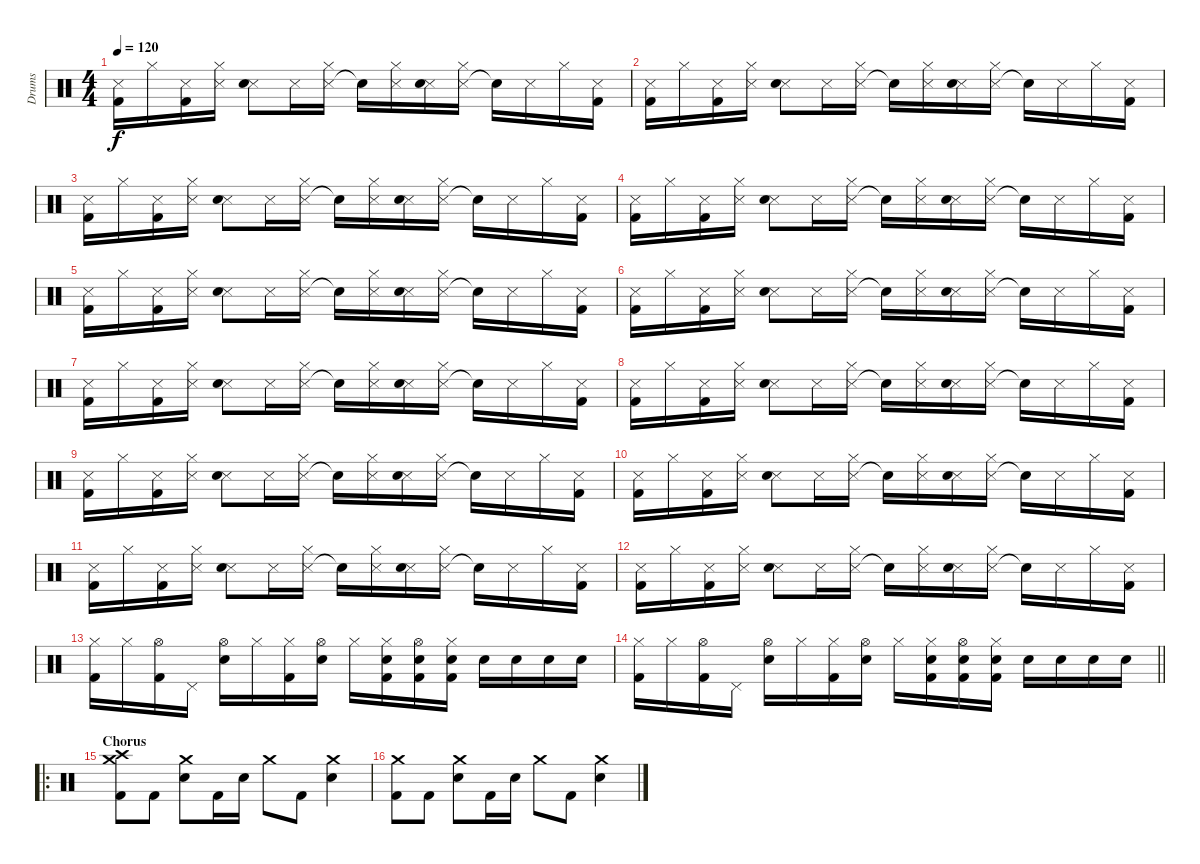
\track ("Drums" "Drums") {instrument percussion}
\staff {score}
\articulation defaults
\ts (4 4)
\tempo 120
\clef neutral
\ks c
("Snare (side stick) 3" "Kick (hit) 2").16{dy f} "Hi-Hat (closed)".16 ("Snare (side stick) 3" "Kick (hit) 2").16 ("Snare (side stick) 3" "Hi-Hat (closed)").16 ("Snare (side stick) 3" "Snare (hit) 2").8 "Snare (side stick) 3".16 ("Snare (side stick) 3" "Hi-Hat (closed)").16 "Snare (hit)"{t}.16 ("Snare (side stick) 3" "Hi-Hat (closed)").16 ("Snare (side stick) 3" "Snare (hit) 2").16 ("Snare (side stick) 3" "Hi-Hat (closed)").16 "Snare (hit)"{t}.16 "Snare (side stick) 3".16 "Hi-Hat (closed)".16 ("Snare (side stick) 3" "Kick (hit) 2").16 |
("Snare (side stick) 3" "Kick (hit) 2").16 "Hi-Hat (closed)".16 ("Snare (side stick) 3" "Kick (hit) 2").16 ("Snare (side stick) 3" "Hi-Hat (closed)").16 ("Snare (side stick) 3" "Snare (hit) 2").8 "Snare (side stick) 3".16 ("Snare (side stick) 3" "Hi-Hat (closed)").16 "Snare (hit)"{t}.16 ("Snare (side stick) 3" "Hi-Hat (closed)").16 ("Snare (side stick) 3" "Snare (hit) 2").16 ("Snare (side stick) 3" "Hi-Hat (closed)").16 "Snare (hit)"{t}.16 "Snare (side stick) 3".16 "Hi-Hat (closed)".16 ("Snare (side stick) 3" "Kick (hit) 2").16 |
("Snare (side stick) 3" "Kick (hit) 2").16 "Hi-Hat (closed)".16 ("Snare (side stick) 3" "Kick (hit) 2").16 ("Snare (side stick) 3" "Hi-Hat (closed)").16 ("Snare (side stick) 3" "Snare (hit) 2").8 "Snare (side stick) 3".16 ("Snare (side stick) 3" "Hi-Hat (closed)").16 "Snare (hit)"{t}.16 ("Snare (side stick) 3" "Hi-Hat (closed)").16 ("Snare (side stick) 3" "Snare (hit) 2").16 ("Snare (side stick) 3" "Hi-Hat (closed)").16 "Snare (hit)"{t}.16 "Snare (side stick) 3".16 "Hi-Hat (closed)".16 ("Snare (side stick) 3" "Kick (hit) 2").16 |
("Snare (side stick) 3" "Kick (hit) 2").16 "Hi-Hat (closed)".16 ("Snare (side stick) 3" "Kick (hit) 2").16 ("Snare (side stick) 3" "Hi-Hat (closed)").16 ("Snare (side stick) 3" "Snare (hit) 2").8 "Snare (side stick) 3".16 ("Snare (side stick) 3" "Hi-Hat (closed)").16 "Snare (hit)"{t}.16 ("Snare (side stick) 3" "Hi-Hat (closed)").16 ("Snare (side stick) 3" "Snare (hit) 2").16 ("Snare (side stick) 3" "Hi-Hat (closed)").16 "Snare (hit)"{t}.16 "Snare (side stick) 3".16 "Hi-Hat (closed)".16 ("Snare (side stick) 3" "Kick (hit) 2").16 |
("Snare (side stick) 3" "Kick (hit) 2").16 "Hi-Hat (closed)".16 ("Snare (side stick) 3" "Kick (hit) 2").16 ("Snare (side stick) 3" "Hi-Hat (closed)").16 ("Snare (side stick) 3" "Snare (hit) 2").8 "Snare (side stick) 3".16 ("Snare (side stick) 3" "Hi-Hat (closed)").16 "Snare (hit)"{t}.16 ("Snare (side stick) 3" "Hi-Hat (closed)").16 ("Snare (side stick) 3" "Snare (hit) 2").16 ("Snare (side stick) 3" "Hi-Hat (closed)").16 "Snare (hit)"{t}.16 "Snare (side stick) 3".16 "Hi-Hat (closed)".16 ("Snare (side stick) 3" "Kick (hit) 2").16 |
("Snare (side stick) 3" "Kick (hit) 2").16 "Hi-Hat (closed)".16 ("Snare (side stick) 3" "Kick (hit) 2").16 ("Snare (side stick) 3" "Hi-Hat (closed)").16 ("Snare (side stick) 3" "Snare (hit) 2").8 "Snare (side stick) 3".16 ("Snare (side stick) 3" "Hi-Hat (closed)").16 "Snare (hit)"{t}.16 ("Snare (side stick) 3" "Hi-Hat (closed)").16 ("Snare (side stick) 3" "Snare (hit) 2").16 ("Snare (side stick) 3" "Hi-Hat (closed)").16 "Snare (hit)"{t}.16 "Snare (side stick) 3".16 "Hi-Hat (closed)".16 ("Snare (side stick) 3" "Kick (hit) 2").16 |
("Snare (side stick) 3" "Kick (hit) 2").16 "Hi-Hat (closed)".16 ("Snare (side stick) 3" "Kick (hit) 2").16 ("Snare (side stick) 3" "Hi-Hat (closed)").16 ("Snare (side stick) 3" "Snare (hit) 2").8 "Snare (side stick) 3".16 ("Snare (side stick) 3" "Hi-Hat (closed)").16 "Snare (hit)"{t}.16 ("Snare (side stick) 3" "Hi-Hat (closed)").16 ("Snare (side stick) 3" "Snare (hit) 2").16 ("Snare (side stick) 3" "Hi-Hat (closed)").16 "Snare (hit)"{t}.16 "Snare (side stick) 3".16 "Hi-Hat (closed)".16 ("Snare (side stick) 3" "Kick (hit) 2").16 |
("Snare (side stick) 3" "Kick (hit) 2").16 "Hi-Hat (closed)".16 ("Snare (side stick) 3" "Kick (hit) 2").16 ("Snare (side stick) 3" "Hi-Hat (closed)").16 ("Snare (side stick) 3" "Snare (hit) 2").8 "Snare (side stick) 3".16 ("Snare (side stick) 3" "Hi-Hat (closed)").16 "Snare (hit)"{t}.16 ("Snare (side stick) 3" "Hi-Hat (closed)").16 ("Snare (side stick) 3" "Snare (hit) 2").16 ("Snare (side stick) 3" "Hi-Hat (closed)").16 "Snare (hit)"{t}.16 "Snare (side stick) 3".16 "Hi-Hat (closed)".16 ("Snare (side stick) 3" "Kick (hit) 2").16 |
("Snare (side stick) 3" "Kick (hit) 2").16 "Hi-Hat (closed)".16 ("Snare (side stick) 3" "Kick (hit) 2").16 ("Snare (side stick) 3" "Hi-Hat (closed)").16 ("Snare (side stick) 3" "Snare (hit) 2").8 "Snare (side stick) 3".16 ("Snare (side stick) 3" "Hi-Hat (closed)").16 "Snare (hit)"{t}.16 ("Snare (side stick) 3" "Hi-Hat (closed)").16 ("Snare (side stick) 3" "Snare (hit) 2").16 ("Snare (side stick) 3" "Hi-Hat (closed)").16 "Snare (hit)"{t}.16 "Snare (side stick) 3".16 "Hi-Hat (closed)".16 ("Snare (side stick) 3" "Kick (hit) 2").16 |
("Snare (side stick) 3" "Kick (hit) 2").16 "Hi-Hat (closed)".16 ("Snare (side stick) 3" "Kick (hit) 2").16 ("Snare (side stick) 3" "Hi-Hat (closed)").16 ("Snare (side stick) 3" "Snare (hit) 2").8 "Snare (side stick) 3".16 ("Snare (side stick) 3" "Hi-Hat (closed)").16 "Snare (hit)"{t}.16 ("Snare (side stick) 3" "Hi-Hat (closed)").16 ("Snare (side stick) 3" "Snare (hit) 2").16 ("Snare (side stick) 3" "Hi-Hat (closed)").16 "Snare (hit)"{t}.16 "Snare (side stick) 3".16 "Hi-Hat (closed)".16 ("Snare (side stick) 3" "Kick (hit) 2").16 |
("Snare (side stick) 3" "Kick (hit) 2").16 "Hi-Hat (closed)".16 ("Snare (side stick) 3" "Kick (hit) 2").16 ("Snare (side stick) 3" "Hi-Hat (closed)").16 ("Snare (side stick) 3" "Snare (hit) 2").8 "Snare (side stick) 3".16 ("Snare (side stick) 3" "Hi-Hat (closed)").16 "Snare (hit)"{t}.16 ("Snare (side stick) 3" "Hi-Hat (closed)").16 ("Snare (side stick) 3" "Snare (hit) 2").16 ("Snare (side stick) 3" "Hi-Hat (closed)").16 "Snare (hit)"{t}.16 "Snare (side stick) 3".16 "Hi-Hat (closed)".16 ("Snare (side stick) 3" "Kick (hit) 2").16 |
("Snare (side stick) 3" "Kick (hit) 2").16 "Hi-Hat (closed)".16 ("Snare (side stick) 3" "Kick (hit) 2").16 ("Snare (side stick) 3" "Hi-Hat (closed)").16 ("Snare (side stick) 3" "Snare (hit) 2").8 "Snare (side stick) 3".16 ("Snare (side stick) 3" "Hi-Hat (closed)").16 "Snare (hit)"{t}.16 ("Snare (side stick) 3" "Hi-Hat (closed)").16 ("Snare (side stick) 3" "Snare (hit) 2").16 ("Snare (side stick) 3" "Hi-Hat (closed)").16 "Snare (hit)"{t}.16 "Snare (side stick) 3".16 "Hi-Hat (closed)".16 ("Snare (side stick) 3" "Kick (hit) 2").16 |
("Hi-Hat (closed)" "Kick (hit) 2").16{volume 14} "Hi-Hat (closed)".16 ("Hi-Hat (open)" "Kick (hit) 2").16 "Pedal Hi-Hat (hit)".16 ("Hi-Hat (open)" "Electric Snare (hit)").16 "Hi-Hat (closed)".16 ("Hi-Hat (closed)" "Kick (hit) 2").16 ("Hi-Hat (open)" "Electric Snare (hit)").16 "Hi-Hat (closed)".16 ("Hi-Hat (closed)" "Electric Snare (hit)" "Kick (hit) 2").16 ("Hi-Hat (open)" "Electric Snare (hit)" "Kick (hit) 2").16 ("Hi-Hat (closed)" "Electric Snare (hit)" "Kick (hit) 2").16 "Electric Snare (hit)".16 "Electric Snare (hit)".16 "Electric Snare (hit)".16 "Electric Snare (hit)".16 |
\barLineRight lightlight
("Hi-Hat (closed)" "Kick (hit) 2").16 "Hi-Hat (closed)".16 ("Hi-Hat (open)" "Kick (hit) 2").16 "Pedal Hi-Hat (hit)".16 ("Hi-Hat (open)" "Electric Snare (hit)").16 "Hi-Hat (closed)".16 ("Hi-Hat (closed)" "Kick (hit) 2").16 ("Hi-Hat (open)" "Electric Snare (hit)").16 "Hi-Hat (closed)".16 ("Hi-Hat (closed)" "Electric Snare (hit)" "Kick (hit) 2").16 ("Hi-Hat (open)" "Electric Snare (hit)" "Kick (hit) 2").16 ("Hi-Hat (closed)" "Electric Snare (hit)" "Kick (hit) 2").16 "Electric Snare (hit)".16 "Electric Snare (hit)".16 "Electric Snare (hit)".16 "Electric Snare (hit)".16 |
\ro
\section ("" "Chorus")
("Crash medium (hit)" "Crash high (hit)" "Kick (hit) 2").8 "Kick (hit) 2".8 ("Crash medium (hit)" "Electric Snare (hit)").8 "Kick (hit) 2".16 "Electric Snare (hit)".16 "Crash medium (hit)".8 "Kick (hit) 2".8 ("Crash medium (hit)" "Electric Snare (hit)").4 |
("Crash medium (hit)" "Kick (hit) 2").8 "Kick (hit) 2".8 ("Crash medium (hit)" "Electric Snare (hit)").8 "Kick (hit) 2".16 "Electric Snare (hit)".16 "Crash medium (hit)".8 "Kick (hit) 2".8 ("Crash medium (hit)" "Electric Snare (hit)").4
